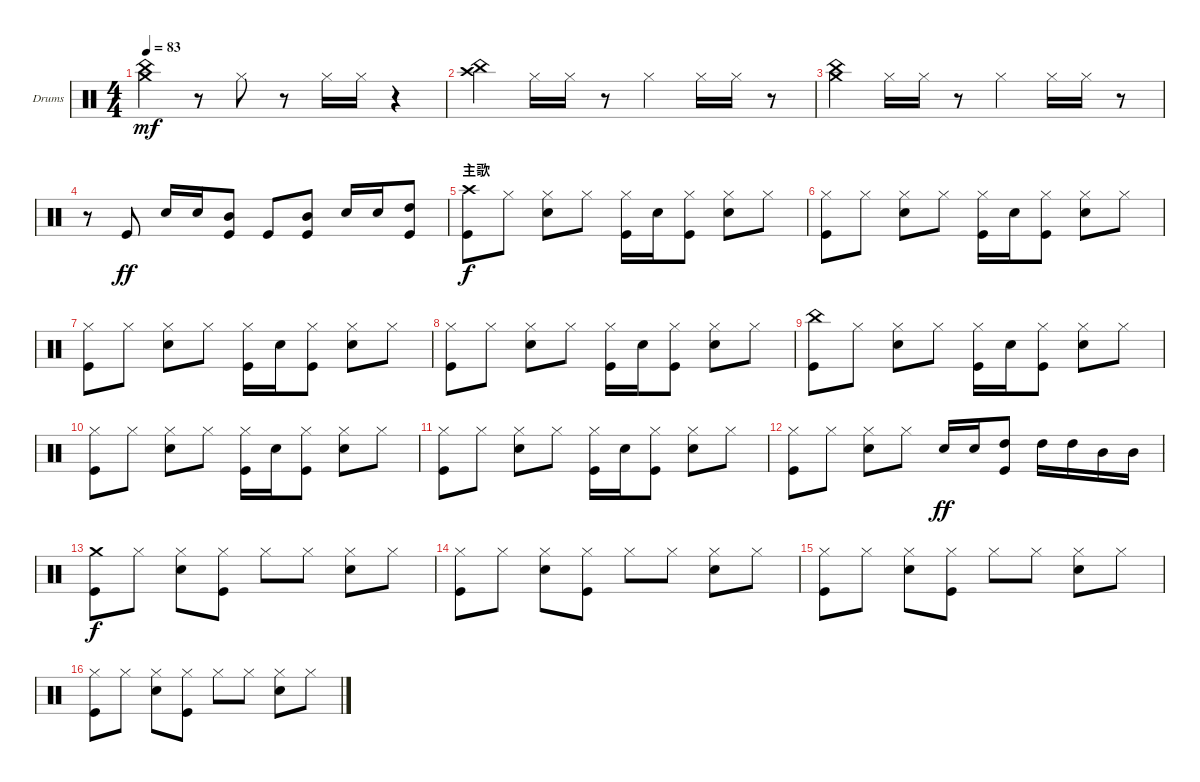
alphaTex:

\bracketExtendMode groupsimilarinstruments
\firstSystemTrackNameOrientation horizontal
\otherSystemsTrackNameOrientation horizontal
\track ("Drumkit" "Drums") {instrument percussion}
\staff {score}
\articulation defaults
\ts (4 4)
\tempo 83
\clef neutral
\ks c
("China (hit)" "Crash medium (hit)").4{dy mf} r.8 "Hi-Hat (closed)".8 r.8 "Hi-Hat (closed)".16 "Hi-Hat (closed)".16 r.4 |
("China (hit)" "Crash high (hit)").4 "Hi-Hat (closed)".16 "Hi-Hat (closed)".16 r.8 "Hi-Hat (closed)".4 "Hi-Hat (closed)".16 "Hi-Hat (closed)".16 r.8 |
("Crash medium (hit)" "China (hit)").4 "Hi-Hat (closed)".16 "Hi-Hat (closed)".16 r.8 "Hi-Hat (closed)".4 "Hi-Hat (closed)".16 "Hi-Hat (closed)".16 r.8 |
r.8 "Kick (hit)".8{dy ff} "Snare (hit) 2".16 "Snare (hit) 2".16 ("Mid Tom (hit)" "Kick (hit)").8 "Kick (hit)".8 ("Kick (hit)" "Mid Tom (hit)").8 "Snare (hit) 2".16 "Snare (hit) 2".16 ("High Tom (hit)" "Kick (hit)").8 |
\section ("" "主歌")
("Kick (hit)" "Crash high (hit)").8{dy f} "Hi-Hat (closed)".8 ("Snare (hit) 2" "Hi-Hat (closed)").8 "Hi-Hat (closed)".8 ("Kick (hit)" "Hi-Hat (closed)").16 "Snare (hit) 2".16 ("Kick (hit)" "Hi-Hat (closed)").8 ("Snare (hit) 2" "Hi-Hat (closed)").8 "Hi-Hat (closed)".8 |
("Kick (hit)" "Hi-Hat (closed)").8 "Hi-Hat (closed)".8 ("Snare (hit) 2" "Hi-Hat (closed)").8 "Hi-Hat (closed)".8 ("Kick (hit)" "Hi-Hat (closed)").16 "Snare (hit) 2".16 ("Kick (hit)" "Hi-Hat (closed)").8 ("Snare (hit) 2" "Hi-Hat (closed)").8 "Hi-Hat (closed)".8 |
("Kick (hit)" "Hi-Hat (closed)").8 "Hi-Hat (closed)".8 ("Snare (hit) 2" "Hi-Hat (closed)").8 "Hi-Hat (closed)".8 ("Kick (hit)" "Hi-Hat (closed)").16 "Snare (hit) 2".16 ("Kick (hit)" "Hi-Hat (closed)").8 ("Snare (hit) 2" "Hi-Hat (closed)").8 "Hi-Hat (closed)".8 |
("Kick (hit)" "Hi-Hat (closed)").8 "Hi-Hat (closed)".8 ("Snare (hit) 2" "Hi-Hat (closed)").8 "Hi-Hat (closed)".8 ("Kick (hit)" "Hi-Hat (closed)").16 "Snare (hit) 2".16 ("Kick (hit)" "Hi-Hat (closed)").8 ("Snare (hit) 2" "Hi-Hat (closed)").8 "Hi-Hat (closed)".8 |
("Kick (hit)" "China (hit)").8 "Hi-Hat (closed)".8 ("Snare (hit) 2" "Hi-Hat (closed)").8 "Hi-Hat (closed)".8 ("Kick (hit)" "Hi-Hat (closed)").16 "Snare (hit) 2".16 ("Kick (hit)" "Hi-Hat (closed)").8 ("Snare (hit) 2" "Hi-Hat (closed)").8 "Hi-Hat (closed)".8 |
("Kick (hit)" "Hi-Hat (closed)").8 "Hi-Hat (closed)".8 ("Snare (hit) 2" "Hi-Hat (closed)").8 "Hi-Hat (closed)".8 ("Kick (hit)" "Hi-Hat (closed)").16 "Snare (hit) 2".16 ("Kick (hit)" "Hi-Hat (closed)").8 ("Snare (hit) 2" "Hi-Hat (closed)").8 "Hi-Hat (closed)".8 |
("Kick (hit)" "Hi-Hat (closed)").8 "Hi-Hat (closed)".8 ("Snare (hit) 2" "Hi-Hat (closed)").8 "Hi-Hat (closed)".8 ("Kick (hit)" "Hi-Hat (closed)").16 "Snare (hit) 2".16 ("Kick (hit)" "Hi-Hat (closed)").8 ("Snare (hit) 2" "Hi-Hat (closed)").8 "Hi-Hat (closed)".8 |
("Kick (hit)" "Hi-Hat (closed)").8 "Hi-Hat (closed)".8 ("Snare (hit) 2" "Hi-Hat (closed)").8 "Hi-Hat (closed)".8 "Snare (hit) 2".16{dy ff} "Snare (hit) 2".16 ("High Tom (hit)" "Kick (hit)").8 "High Tom (hit)".16 "High Tom (hit)".16 "Mid Tom (hit)".16 "Mid Tom (hit)".16 |
("Kick (hit)" "Crash medium (hit)").8{dy f} "Hi-Hat (closed)".8 ("Snare (hit) 2" "Hi-Hat (closed)").8 ("Hi-Hat (closed)" "Kick (hit)").8 "Hi-Hat (closed)".8 "Hi-Hat (closed)".8 ("Snare (hit) 2" "Hi-Hat (closed)").8 "Hi-Hat (closed)".8 |
("Kick (hit)" "Hi-Hat (closed)").8 "Hi-Hat (closed)".8 ("Snare (hit) 2" "Hi-Hat (closed)").8 ("Hi-Hat (closed)" "Kick (hit)").8 "Hi-Hat (closed)".8 "Hi-Hat (closed)".8 ("Snare (hit) 2" "Hi-Hat (closed)").8 "Hi-Hat (closed)".8 |
("Kick (hit)" "Hi-Hat (closed)").8 "Hi-Hat (closed)".8 ("Snare (hit) 2" "Hi-Hat (closed)").8 ("Hi-Hat (closed)" "Kick (hit)").8 "Hi-Hat (closed)".8 "Hi-Hat (closed)".8 ("Snare (hit) 2" "Hi-Hat (closed)").8 "Hi-Hat (closed)".8 |
("Kick (hit)" "Hi-Hat (closed)").8 "Hi-Hat (closed)".8 ("Snare (hit) 2" "Hi-Hat (closed)").8 ("Hi-Hat (closed)" "Kick (hit)").8 "Hi-Hat (closed)".8 "Hi-Hat (closed)".8 ("Snare (hit) 2" "Hi-Hat (closed)").8 "Hi-Hat (closed)".8
